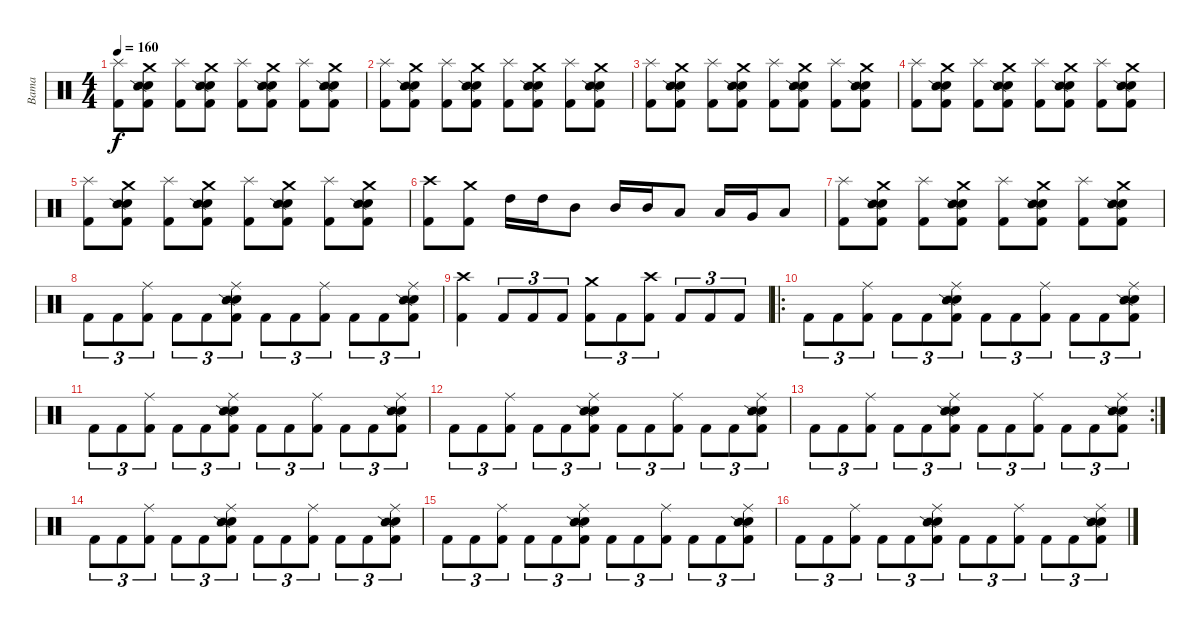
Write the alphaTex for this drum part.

\track ("Bama" "Bama") {instrument percussion}
\staff {score}
\articulation defaults
\ts (4 4)
\tempo 160
\clef neutral
\ks c
("Splash (hit)" "Kick (hit) 2").8{dy f} ("Crash medium (hit)" "Electric Snare (hit)" "Snare (side stick) 2" "Kick (hit) 2").8 ("Splash (hit)" "Kick (hit) 2").8 ("Crash medium (hit)" "Electric Snare (hit)" "Snare (side stick) 2" "Kick (hit) 2").8 ("Splash (hit)" "Kick (hit) 2").8 ("Crash medium (hit)" "Electric Snare (hit)" "Snare (side stick) 2" "Kick (hit) 2").8 ("Splash (hit)" "Kick (hit) 2").8 ("Crash medium (hit)" "Electric Snare (hit)" "Snare (side stick) 2" "Kick (hit) 2").8 |
("Splash (hit)" "Kick (hit) 2").8 ("Crash medium (hit)" "Electric Snare (hit)" "Snare (side stick) 2" "Kick (hit) 2").8 ("Splash (hit)" "Kick (hit) 2").8 ("Crash medium (hit)" "Electric Snare (hit)" "Snare (side stick) 2" "Kick (hit) 2").8 ("Splash (hit)" "Kick (hit) 2").8 ("Crash medium (hit)" "Electric Snare (hit)" "Snare (side stick) 2" "Kick (hit) 2").8 ("Splash (hit)" "Kick (hit) 2").8 ("Crash medium (hit)" "Electric Snare (hit)" "Snare (side stick) 2" "Kick (hit) 2").8 |
("Splash (hit)" "Kick (hit) 2").8 ("Crash medium (hit)" "Electric Snare (hit)" "Snare (side stick) 2" "Kick (hit) 2").8 ("Splash (hit)" "Kick (hit) 2").8 ("Crash medium (hit)" "Electric Snare (hit)" "Snare (side stick) 2" "Kick (hit) 2").8 ("Splash (hit)" "Kick (hit) 2").8 ("Crash medium (hit)" "Electric Snare (hit)" "Snare (side stick) 2" "Kick (hit) 2").8 ("Splash (hit)" "Kick (hit) 2").8 ("Crash medium (hit)" "Electric Snare (hit)" "Snare (side stick) 2" "Kick (hit) 2").8 |
("Splash (hit)" "Kick (hit) 2").8 ("Crash medium (hit)" "Electric Snare (hit)" "Snare (side stick) 2" "Kick (hit) 2").8 ("Splash (hit)" "Kick (hit) 2").8 ("Crash medium (hit)" "Electric Snare (hit)" "Snare (side stick) 2" "Kick (hit) 2").8 ("Splash (hit)" "Kick (hit) 2").8 ("Crash medium (hit)" "Electric Snare (hit)" "Snare (side stick) 2" "Kick (hit) 2").8 ("Splash (hit)" "Kick (hit) 2").8 ("Crash medium (hit)" "Electric Snare (hit)" "Snare (side stick) 2" "Kick (hit) 2").8 |
("Splash (hit)" "Kick (hit) 2").8 ("Crash medium (hit)" "Electric Snare (hit)" "Snare (side stick) 2" "Kick (hit) 2").8 ("Splash (hit)" "Kick (hit) 2").8 ("Crash medium (hit)" "Electric Snare (hit)" "Snare (side stick) 2" "Kick (hit) 2").8 ("Splash (hit)" "Kick (hit) 2").8 ("Crash medium (hit)" "Electric Snare (hit)" "Snare (side stick) 2" "Kick (hit) 2").8 ("Splash (hit)" "Kick (hit) 2").8 ("Crash medium (hit)" "Electric Snare (hit)" "Snare (side stick) 2" "Kick (hit) 2").8 |
("Crash high (hit)" "Kick (hit) 2").8 ("Crash medium (hit)" "Kick (hit) 2").8 "High Tom (hit)".16 "High Tom (hit)".16 "Mid Tom (hit)".8 "Mid Tom (hit)".16 "Mid Tom (hit)".16 "Low Tom (hit)".8 "Low Tom (hit)".16 "Very Low Tom (hit)".16 "Low Floor Tom (hit)".8 |
("Splash (hit)" "Kick (hit) 2").8 ("Crash medium (hit)" "Electric Snare (hit)" "Snare (side stick) 2" "Kick (hit) 2").8 ("Splash (hit)" "Kick (hit) 2").8 ("Crash medium (hit)" "Electric Snare (hit)" "Snare (side stick) 2" "Kick (hit) 2").8 ("Splash (hit)" "Kick (hit) 2").8 ("Crash medium (hit)" "Electric Snare (hit)" "Snare (side stick) 2" "Kick (hit) 2").8 ("Splash (hit)" "Kick (hit) 2").8 ("Crash medium (hit)" "Electric Snare (hit)" "Snare (side stick) 2" "Kick (hit) 2").8 |
"Kick (hit) 2".8{tu (3 2)} "Kick (hit) 2".8{tu (3 2)} ("Ride (middle)" "Kick (hit) 2").8{tu (3 2)} "Kick (hit) 2".8{tu (3 2)} "Kick (hit) 2".8{tu (3 2)} ("Ride (middle)" "Electric Snare (hit)" "Snare (side stick) 2" "Kick (hit) 2").8{tu (3 2)} "Kick (hit) 2".8{tu (3 2)} "Kick (hit) 2".8{tu (3 2)} ("Ride (middle)" "Kick (hit) 2").8{tu (3 2)} "Kick (hit) 2".8{tu (3 2)} "Kick (hit) 2".8{tu (3 2)} ("Ride (middle)" "Electric Snare (hit)" "Snare (side stick) 2" "Kick (hit) 2").8{tu (3 2)} |
("Crash high (hit)" "Kick (hit) 2").4 "Kick (hit) 2".8{tu (3 2)} "Kick (hit) 2".8{tu (3 2)} "Kick (hit) 2".8{tu (3 2)} ("Crash medium (hit)" "Kick (hit) 2").8{tu (3 2)} "Kick (hit) 2".8{tu (3 2)} ("Crash high (hit)" "Kick (hit) 2").8{tu (3 2)} "Kick (hit) 2".8{tu (3 2)} "Kick (hit) 2".8{tu (3 2)} "Kick (hit) 2".8{tu (3 2)} |
\ro "Kick (hit) 2".8{tu (3 2)} "Kick (hit) 2".8{tu (3 2)}
("Ride (middle)" "Kick (hit) 2").8{tu (3 2)} "Kick (hit) 2".8{tu (3 2)} "Kick (hit) 2".8{tu (3 2)} ("Ride (middle)" "Electric Snare (hit)" "Snare (side stick) 2" "Kick (hit) 2").8{tu (3 2)} "Kick (hit) 2".8{tu (3 2)} "Kick (hit) 2".8{tu (3 2)} ("Ride (middle)" "Kick (hit) 2").8{tu (3 2)} "Kick (hit) 2".8{tu (3 2)} "Kick (hit) 2".8{tu (3 2)} ("Ride (middle)" "Electric Snare (hit)" "Snare (side stick) 2" "Kick (hit) 2").8{tu (3 2)} |
"Kick (hit) 2".8{tu (3 2)} "Kick (hit) 2".8{tu (3 2)} ("Ride (middle)" "Kick (hit) 2").8{tu (3 2)} "Kick (hit) 2".8{tu (3 2)} "Kick (hit) 2".8{tu (3 2)} ("Ride (middle)" "Electric Snare (hit)" "Snare (side stick) 2" "Kick (hit) 2").8{tu (3 2)} "Kick (hit) 2".8{tu (3 2)} "Kick (hit) 2".8{tu (3 2)} ("Ride (middle)" "Kick (hit) 2").8{tu (3 2)} "Kick (hit) 2".8{tu (3 2)} "Kick (hit) 2".8{tu (3 2)} ("Ride (middle)" "Electric Snare (hit)" "Snare (side stick) 2" "Kick (hit) 2").8{tu (3 2)} |
"Kick (hit) 2".8{tu (3 2)} "Kick (hit) 2".8{tu (3 2)} ("Ride (middle)" "Kick (hit) 2").8{tu (3 2)} "Kick (hit) 2".8{tu (3 2)} "Kick (hit) 2".8{tu (3 2)} ("Ride (middle)" "Electric Snare (hit)" "Snare (side stick) 2" "Kick (hit) 2").8{tu (3 2)} "Kick (hit) 2".8{tu (3 2)} "Kick (hit) 2".8{tu (3 2)} ("Ride (middle)" "Kick (hit) 2").8{tu (3 2)} "Kick (hit) 2".8{tu (3 2)} "Kick (hit) 2".8{tu (3 2)} ("Ride (middle)" "Electric Snare (hit)" "Snare (side stick) 2" "Kick (hit) 2").8{tu (3 2)} |
\rc 2 "Kick (hit) 2".8{tu (3 2)} "Kick (hit) 2".8{tu (3 2)}
("Ride (middle)" "Kick (hit) 2").8{tu (3 2)} "Kick (hit) 2".8{tu (3 2)} "Kick (hit) 2".8{tu (3 2)} ("Ride (middle)" "Electric Snare (hit)" "Snare (side stick) 2" "Kick (hit) 2").8{tu (3 2)} "Kick (hit) 2".8{tu (3 2)} "Kick (hit) 2".8{tu (3 2)} ("Ride (middle)" "Kick (hit) 2").8{tu (3 2)} "Kick (hit) 2".8{tu (3 2)} "Kick (hit) 2".8{tu (3 2)} ("Ride (middle)" "Electric Snare (hit)" "Snare (side stick) 2" "Kick (hit) 2").8{tu (3 2)} |
"Kick (hit) 2".8{tu (3 2)} "Kick (hit) 2".8{tu (3 2)} ("Ride (middle)" "Kick (hit) 2").8{tu (3 2)} "Kick (hit) 2".8{tu (3 2)} "Kick (hit) 2".8{tu (3 2)} ("Ride (middle)" "Electric Snare (hit)" "Snare (side stick) 2" "Kick (hit) 2").8{tu (3 2)} "Kick (hit) 2".8{tu (3 2)} "Kick (hit) 2".8{tu (3 2)} ("Ride (middle)" "Kick (hit) 2").8{tu (3 2)} "Kick (hit) 2".8{tu (3 2)} "Kick (hit) 2".8{tu (3 2)} ("Ride (middle)" "Electric Snare (hit)" "Snare (side stick) 2" "Kick (hit) 2").8{tu (3 2)} |
"Kick (hit) 2".8{tu (3 2)} "Kick (hit) 2".8{tu (3 2)} ("Ride (middle)" "Kick (hit) 2").8{tu (3 2)} "Kick (hit) 2".8{tu (3 2)} "Kick (hit) 2".8{tu (3 2)} ("Ride (middle)" "Electric Snare (hit)" "Snare (side stick) 2" "Kick (hit) 2").8{tu (3 2)} "Kick (hit) 2".8{tu (3 2)} "Kick (hit) 2".8{tu (3 2)} ("Ride (middle)" "Kick (hit) 2").8{tu (3 2)} "Kick (hit) 2".8{tu (3 2)} "Kick (hit) 2".8{tu (3 2)} ("Ride (middle)" "Electric Snare (hit)" "Snare (side stick) 2" "Kick (hit) 2").8{tu (3 2)} |
"Kick (hit) 2".8{tu (3 2)} "Kick (hit) 2".8{tu (3 2)} ("Ride (middle)" "Kick (hit) 2").8{tu (3 2)} "Kick (hit) 2".8{tu (3 2)} "Kick (hit) 2".8{tu (3 2)} ("Ride (middle)" "Electric Snare (hit)" "Snare (side stick) 2" "Kick (hit) 2").8{tu (3 2)} "Kick (hit) 2".8{tu (3 2)} "Kick (hit) 2".8{tu (3 2)} ("Ride (middle)" "Kick (hit) 2").8{tu (3 2)} "Kick (hit) 2".8{tu (3 2)} "Kick (hit) 2".8{tu (3 2)} ("Ride (middle)" "Electric Snare (hit)" "Snare (side stick) 2" "Kick (hit) 2").8{tu (3 2)}
